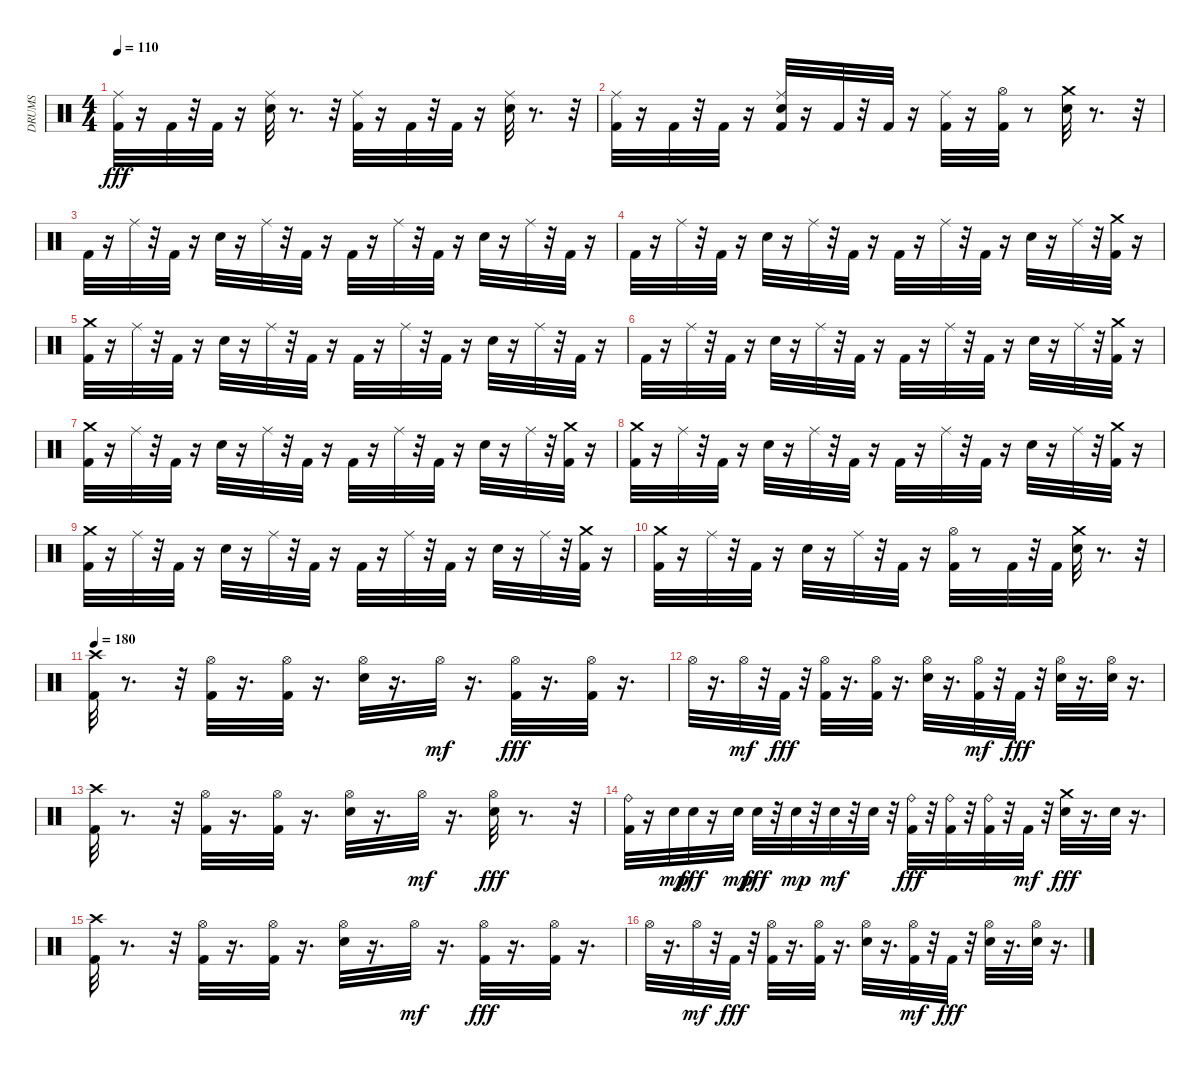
\track ("DRUMS" "DRUMS") {instrument percussion}
\staff {score}
\articulation defaults
\ts (4 4)
\tempo 110
\clef neutral
\ks c
("Kick (hit) 2" "Ride (middle)").32{dy fff} r.16 "Kick (hit) 2".32 r.32 "Kick (hit) 2".32 r.16 ("Electric Snare (hit)" "Ride (middle)").32 r.8{d} r.32 ("Kick (hit) 2" "Ride (middle)").32 r.16 "Kick (hit) 2".32 r.32 "Kick (hit) 2".32 r.16 ("Electric Snare (hit)" "Ride (middle)").32 r.8{d} r.32 |
("Kick (hit) 2" "Ride (middle)").32 r.16 "Kick (hit) 2".32 r.32 "Kick (hit) 2".32 r.16 ("Electric Snare (hit)" "Kick (hit) 2" "Ride (middle)").32 r.16 "Kick (hit) 2".32 r.32 "Kick (hit) 2".32 r.16 ("Kick (hit) 2" "Ride (middle)").32 r.16 ("Hi-Hat (open)" "Kick (hit) 2").32 r.8 ("Crash medium (hit)" "Electric Snare (hit)").32 r.8{d} r.32 |
"Kick (hit) 2".32 r.16 "Ride (middle)".32 r.32 "Kick (hit) 2".32 r.16 "Electric Snare (hit)".32 r.16 "Ride (middle)".32 r.32 "Kick (hit) 2".32 r.16 "Kick (hit) 2".32 r.16 "Ride (middle)".32 r.32 "Kick (hit) 2".32 r.16 "Electric Snare (hit)".32 r.16 "Ride (middle)".32 r.32 "Kick (hit) 2".32 r.16 |
"Kick (hit) 2".32 r.16 "Ride (middle)".32 r.32 "Kick (hit) 2".32 r.16 "Electric Snare (hit)".32 r.16 "Ride (middle)".32 r.32 "Kick (hit) 2".32 r.16 "Kick (hit) 2".32 r.16 "Ride (middle)".32 r.32 "Kick (hit) 2".32 r.16 "Electric Snare (hit)".32 r.16 "Ride (middle)".32 r.32 ("Crash medium (hit)" "Kick (hit) 2").32 r.16 |
("Crash medium (hit)" "Kick (hit) 2").32 r.16 "Ride (middle)".32 r.32 "Kick (hit) 2".32 r.16 "Electric Snare (hit)".32 r.16 "Ride (middle)".32 r.32 "Kick (hit) 2".32 r.16 "Kick (hit) 2".32 r.16 "Ride (middle)".32 r.32 "Kick (hit) 2".32 r.16 "Electric Snare (hit)".32 r.16 "Ride (middle)".32 r.32 "Kick (hit) 2".32 r.16 |
"Kick (hit) 2".32 r.16 "Ride (middle)".32 r.32 "Kick (hit) 2".32 r.16 "Electric Snare (hit)".32 r.16 "Ride (middle)".32 r.32 "Kick (hit) 2".32 r.16 "Kick (hit) 2".32 r.16 "Ride (middle)".32 r.32 "Kick (hit) 2".32 r.16 "Electric Snare (hit)".32 r.16 "Ride (middle)".32 r.32 ("Crash medium (hit)" "Kick (hit) 2").32 r.16 |
("Crash medium (hit)" "Kick (hit) 2").32 r.16 "Ride (middle)".32 r.32 "Kick (hit) 2".32 r.16 "Electric Snare (hit)".32 r.16 "Ride (middle)".32 r.32 "Kick (hit) 2".32 r.16 "Kick (hit) 2".32 r.16 "Ride (middle)".32 r.32 "Kick (hit) 2".32 r.16 "Electric Snare (hit)".32 r.16 "Ride (middle)".32 r.32 ("Crash medium (hit)" "Kick (hit) 2").32 r.16 |
("Crash medium (hit)" "Kick (hit) 2").32 r.16 "Ride (middle)".32 r.32 "Kick (hit) 2".32 r.16 "Electric Snare (hit)".32 r.16 "Ride (middle)".32 r.32 "Kick (hit) 2".32 r.16 "Kick (hit) 2".32 r.16 "Ride (middle)".32 r.32 "Kick (hit) 2".32 r.16 "Electric Snare (hit)".32 r.16 "Ride (middle)".32 r.32 ("Crash medium (hit)" "Kick (hit) 2").32 r.16 |
("Crash medium (hit)" "Kick (hit) 2").32 r.16 "Ride (middle)".32 r.32 "Kick (hit) 2".32 r.16 "Electric Snare (hit)".32 r.16 "Ride (middle)".32 r.32 "Kick (hit) 2".32 r.16 "Kick (hit) 2".32 r.16 "Ride (middle)".32 r.32 "Kick (hit) 2".32 r.16 "Electric Snare (hit)".32 r.16 "Ride (middle)".32 r.32 ("Crash medium (hit)" "Kick (hit) 2").32 r.16 |
("Crash medium (hit)" "Kick (hit) 2").32 r.16 "Ride (middle)".32 r.32 "Kick (hit) 2".32 r.16 "Electric Snare (hit)".32 r.16 "Ride (middle)".32 r.32 "Kick (hit) 2".32 r.16 ("Hi-Hat (open)" "Kick (hit) 2").32 r.8 "Kick (hit) 2".32 r.32 "Kick (hit) 2".32 ("Crash medium (hit)" "Electric Snare (hit)").32 r.8{d} r.32 |
\tempo 180
("Crash high (hit)" "Kick (hit) 2").32 r.8{d} r.32 ("Hi-Hat (open)" "Kick (hit) 2").32 r.16{d} ("Hi-Hat (open)" "Kick (hit) 2").32 r.16{d} ("Hi-Hat (open)" "Electric Snare (hit)").32 r.16{d} "Hi-Hat (open)".32{dy mf} r.16{d} ("Hi-Hat (open)" "Kick (hit) 2").32{dy fff} r.16{d} ("Hi-Hat (open)" "Kick (hit) 2").32 r.16{d} |
"Hi-Hat (open)".32 r.16{d} "Hi-Hat (open)".32{dy mf} r.32 "Kick (hit) 2".32{dy fff} r.32 ("Hi-Hat (open)" "Kick (hit) 2").32 r.16{d} ("Hi-Hat (open)" "Kick (hit) 2").32 r.16{d} ("Hi-Hat (open)" "Electric Snare (hit)").32 r.16{d} ("Hi-Hat (open)" "Kick (hit) 2").32{dy mf} r.32 "Kick (hit) 2".32{dy fff} r.32 ("Hi-Hat (open)" "Electric Snare (hit)").32 r.16{d} ("Hi-Hat (open)" "Electric Snare (hit)").32 r.16{d} |
("Crash high (hit)" "Kick (hit) 2").32 r.8{d} r.32 ("Hi-Hat (open)" "Kick (hit) 2").32 r.16{d} ("Hi-Hat (open)" "Kick (hit) 2").32 r.16{d} ("Hi-Hat (open)" "Electric Snare (hit)").32 r.16{d} "Hi-Hat (open)".32{dy mf} r.16{d} ("Hi-Hat (open)" "Electric Snare (hit)").32{dy fff} r.8{d} r.32 |
("Ride (bell)" "Kick (hit) 2").32 r.16 "Electric Snare (hit)".32{dy mp} "Electric Snare (hit)".32{dy fff} r.16 "Electric Snare (hit)".32{dy mp} "Electric Snare (hit)".32{dy fff} r.32 "Electric Snare (hit)".32{dy mp} r.32 "Electric Snare (hit)".32{dy mf} r.32 "Electric Snare (hit)".32 r.32 ("Ride (bell)" "Kick (hit) 2").32{dy fff} r.32 ("Ride (bell)" "Kick (hit) 2").32 r.32 ("Ride (bell)" "Kick (hit) 2").32 r.32 "Kick (hit) 2".32{dy mf} r.32 ("Crash medium (hit)" "Electric Snare (hit)").32{dy fff} r.16{d} "Electric Snare (hit)".32 r.16{d} |
("Crash high (hit)" "Kick (hit) 2").32 r.8{d} r.32 ("Hi-Hat (open)" "Kick (hit) 2").32 r.16{d} ("Hi-Hat (open)" "Kick (hit) 2").32 r.16{d} ("Hi-Hat (open)" "Electric Snare (hit)").32 r.16{d} "Hi-Hat (open)".32{dy mf} r.16{d} ("Hi-Hat (open)" "Kick (hit) 2").32{dy fff} r.16{d} ("Hi-Hat (open)" "Kick (hit) 2").32 r.16{d} |
"Hi-Hat (open)".32 r.16{d} "Hi-Hat (open)".32{dy mf} r.32 "Kick (hit) 2".32{dy fff} r.32 ("Hi-Hat (open)" "Kick (hit) 2").32 r.16{d} ("Hi-Hat (open)" "Kick (hit) 2").32 r.16{d} ("Hi-Hat (open)" "Electric Snare (hit)").32 r.16{d} ("Hi-Hat (open)" "Kick (hit) 2").32{dy mf} r.32 "Kick (hit) 2".32{dy fff} r.32 ("Hi-Hat (open)" "Electric Snare (hit)").32 r.16{d} ("Hi-Hat (open)" "Electric Snare (hit)").32 r.16{d}
